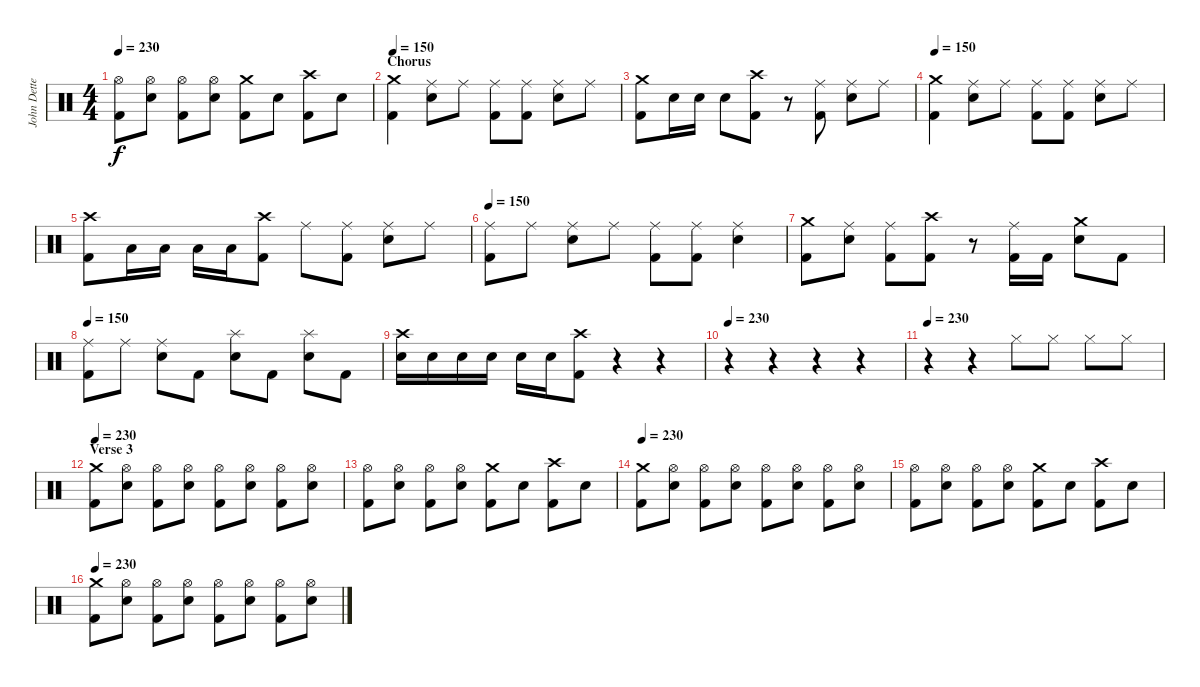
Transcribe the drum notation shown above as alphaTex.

\track ("John Dette" "John Dette") {instrument percussion}
\staff {score}
\articulation defaults
\ts (4 4)
\tempo 230
\clef neutral
\ks c
("Hi-Hat (open)" "Kick (hit) 2").8{dy f} ("Hi-Hat (open)" "Snare (hit) 2").8 ("Hi-Hat (open)" "Kick (hit) 2").8 ("Hi-Hat (open)" "Snare (hit) 2").8 ("Crash medium (hit)" "Kick (hit) 2").8 "Snare (hit) 2".8 ("Crash high (hit)" "Kick (hit) 2").8 "Snare (hit) 2".8 |
\section ("" "Chorus")
\tempo 150
("Crash medium (hit)" "Kick (hit) 2").4 ("Ride (middle)" "Snare (hit) 2").8 "Ride (middle)".8 ("Ride (middle)" "Kick (hit) 2").8 ("Ride (middle)" "Kick (hit) 2").8 ("Ride (middle)" "Snare (hit) 2").8 "Ride (middle)".8 |
("Crash medium (hit)" "Kick (hit) 2").8 "Snare (hit) 2".16 "Snare (hit) 2".16 "Snare (hit) 2".8 ("Crash high (hit)" "Kick (hit) 2").8 r.8 ("Ride (middle)" "Kick (hit) 2").8 ("Ride (middle)" "Snare (hit) 2").8 "Ride (middle)".8 |
\tempo 150
("Crash medium (hit)" "Kick (hit) 2").4 ("Ride (middle)" "Snare (hit) 2").8 "Ride (middle)".8 ("Ride (middle)" "Kick (hit) 2").8 ("Ride (middle)" "Kick (hit) 2").8 ("Ride (middle)" "Snare (hit) 2").8 "Ride (middle)".8 |
("Crash high (hit)" "Kick (hit) 2").8 "Low Tom (hit)".16 "Low Tom (hit)".16 "Low Tom (hit)".16 "Low Tom (hit)".16 ("Crash high (hit)" "Kick (hit) 2").8 "Ride (middle)".8 ("Ride (middle)" "Kick (hit) 2").8 ("Ride (middle)" "Snare (hit) 2").8 "Ride (middle)".8 |
\tempo 150
("Ride (middle)" "Kick (hit) 2").8 "Ride (middle)".8 ("Ride (middle)" "Snare (hit) 2").8 "Ride (middle)".8 ("Ride (middle)" "Kick (hit) 2").8 ("Ride (middle)" "Kick (hit) 2").8 ("Ride (middle)" "Snare (hit) 2").4 |
("Crash medium (hit)" "Kick (hit) 2").8 ("Ride (middle)" "Snare (hit) 2").8 ("Ride (middle)" "Kick (hit) 2").8 ("Crash high (hit)" "Kick (hit) 2").8 r.8 ("Ride (middle)" "Kick (hit) 2").16 "Kick (hit) 2".16 ("Crash medium (hit)" "Snare (hit) 2").8 "Kick (hit) 2".8 |
\tempo 150
("Ride (middle)" "Kick (hit) 2").8 "Ride (middle)".8 ("Ride (middle)" "Snare (hit) 2").8 "Kick (hit) 2".8 ("Splash (hit)" "Snare (hit) 2").8 "Kick (hit) 2".8 ("Splash (hit)" "Snare (hit) 2").8 "Kick (hit) 2".8 |
("Crash high (hit)" "Snare (hit) 2").16 "Snare (hit) 2".16 "Snare (hit) 2".16 "Snare (hit) 2".16 "Snare (hit) 2".16 "Snare (hit) 2".16 ("Crash high (hit)" "Kick (hit) 2").8 r.4 r.4 |
\tempo 230
r.4 r.4 r.4 r.4 |
\tempo 230
r.4 r.4 "Hi-Hat (closed)".8 "Hi-Hat (closed)".8 "Hi-Hat (closed)".8 "Hi-Hat (closed)".8 |
\section ("" "Verse 3")
\tempo 230
("Crash medium (hit)" "Kick (hit) 2").8 ("Hi-Hat (open)" "Snare (hit) 2").8 ("Hi-Hat (open)" "Kick (hit) 2").8 ("Hi-Hat (open)" "Snare (hit) 2").8 ("Hi-Hat (open)" "Kick (hit) 2").8 ("Hi-Hat (open)" "Snare (hit) 2").8 ("Hi-Hat (open)" "Kick (hit) 2").8 ("Hi-Hat (open)" "Snare (hit) 2").8 |
("Hi-Hat (open)" "Kick (hit) 2").8 ("Hi-Hat (open)" "Snare (hit) 2").8 ("Hi-Hat (open)" "Kick (hit) 2").8 ("Hi-Hat (open)" "Snare (hit) 2").8 ("Crash medium (hit)" "Kick (hit) 2").8 "Snare (hit) 2".8 ("Crash high (hit)" "Kick (hit) 2").8 "Snare (hit) 2".8 |
\tempo 230
("Crash medium (hit)" "Kick (hit) 2").8 ("Hi-Hat (open)" "Snare (hit) 2").8 ("Hi-Hat (open)" "Kick (hit) 2").8 ("Hi-Hat (open)" "Snare (hit) 2").8 ("Hi-Hat (open)" "Kick (hit) 2").8 ("Hi-Hat (open)" "Snare (hit) 2").8 ("Hi-Hat (open)" "Kick (hit) 2").8 ("Hi-Hat (open)" "Snare (hit) 2").8 |
("Hi-Hat (open)" "Kick (hit) 2").8 ("Hi-Hat (open)" "Snare (hit) 2").8 ("Hi-Hat (open)" "Kick (hit) 2").8 ("Hi-Hat (open)" "Snare (hit) 2").8 ("Crash medium (hit)" "Kick (hit) 2").8 "Snare (hit) 2".8 ("Crash high (hit)" "Kick (hit) 2").8 "Snare (hit) 2".8 |
\tempo 230
("Crash medium (hit)" "Kick (hit) 2").8 ("Hi-Hat (open)" "Snare (hit) 2").8 ("Hi-Hat (open)" "Kick (hit) 2").8 ("Hi-Hat (open)" "Snare (hit) 2").8 ("Hi-Hat (open)" "Kick (hit) 2").8 ("Hi-Hat (open)" "Snare (hit) 2").8 ("Hi-Hat (open)" "Kick (hit) 2").8 ("Hi-Hat (open)" "Snare (hit) 2").8
